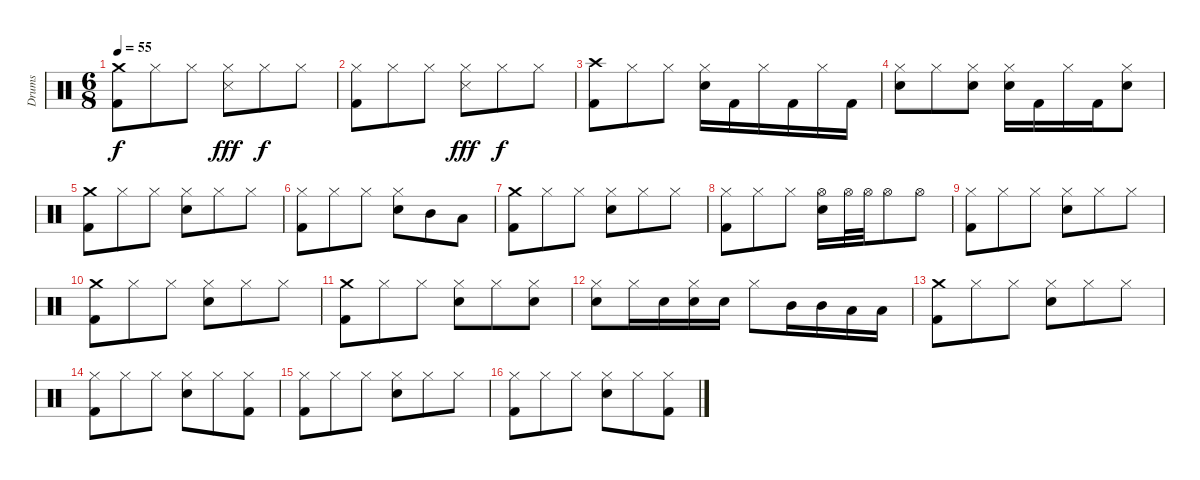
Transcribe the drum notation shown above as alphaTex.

\track ("Drums" "Drums") {instrument percussion}
\staff {score}
\articulation defaults
\ts (6 8)
\tempo 55
\clef neutral
\ks c
("Crash medium (hit)" "Kick (hit) 2").8{dy f} "Hi-Hat (closed)".8 "Hi-Hat (closed)".8 ("Hi-Hat (closed)" "Snare (side stick) 3").8{dy fff} "Hi-Hat (closed)".8{dy f} "Hi-Hat (closed)".8 |
("Hi-Hat (closed)" "Kick (hit) 2").8 "Hi-Hat (closed)".8 "Hi-Hat (closed)".8 ("Hi-Hat (closed)" "Snare (side stick) 3").8{dy fff} "Hi-Hat (closed)".8{dy f} "Hi-Hat (closed)".8 |
("Crash high (hit)" "Kick (hit) 2").8 "Hi-Hat (closed)".8 "Hi-Hat (closed)".8 ("Hi-Hat (closed)" "Snare (hit) 2").16 "Kick (hit) 2".16 "Hi-Hat (closed)".16 "Kick (hit) 2".16 "Hi-Hat (closed)".16 "Kick (hit) 2".16 |
("Hi-Hat (closed)" "Snare (hit) 2").8 "Hi-Hat (closed)".8 ("Hi-Hat (closed)" "Snare (hit) 2").8 ("Hi-Hat (closed)" "Snare (hit) 2").16 "Kick (hit) 2".16 "Hi-Hat (closed)".16 "Kick (hit) 2".16 ("Hi-Hat (closed)" "Snare (hit) 2").8 |
("Crash medium (hit)" "Kick (hit) 2").8 "Hi-Hat (closed)".8 "Hi-Hat (closed)".8 ("Hi-Hat (closed)" "Snare (hit) 2").8 "Hi-Hat (closed)".8 "Hi-Hat (closed)".8 |
("Hi-Hat (closed)" "Kick (hit) 2").8 "Hi-Hat (closed)".8 "Hi-Hat (closed)".8 ("Hi-Hat (closed)" "Snare (hit) 2").8 "Mid Tom (hit)".8 "Low Tom (hit)".8 |
("Crash medium (hit)" "Kick (hit) 2").8 "Hi-Hat (closed)".8 "Hi-Hat (closed)".8 ("Hi-Hat (closed)" "Snare (hit) 2").8 "Hi-Hat (closed)".8 "Hi-Hat (closed)".8 |
("Hi-Hat (closed)" "Kick (hit) 2").8 "Hi-Hat (closed)".8 "Hi-Hat (closed)".8 ("Hi-Hat (open)" "Snare (hit) 2").16 "Hi-Hat (open)".32 "Hi-Hat (open)".32 "Hi-Hat (open)".8 "Hi-Hat (open)".8 |
("Hi-Hat (closed)" "Kick (hit) 2").8 "Hi-Hat (closed)".8 "Hi-Hat (closed)".8 ("Hi-Hat (closed)" "Snare (hit) 2").8 "Hi-Hat (closed)".8 "Hi-Hat (closed)".8 |
("Crash medium (hit)" "Kick (hit) 2").8 "Hi-Hat (closed)".8 "Hi-Hat (closed)".8 ("Hi-Hat (closed)" "Snare (hit) 2").8 "Hi-Hat (closed)".8 "Hi-Hat (closed)".8 |
("Crash medium (hit)" "Kick (hit) 2").8 "Hi-Hat (closed)".8 "Hi-Hat (closed)".8 ("Hi-Hat (closed)" "Snare (hit) 2").8 "Hi-Hat (closed)".8 ("Hi-Hat (closed)" "Snare (hit) 2").8 |
("Hi-Hat (closed)" "Snare (hit) 2").8 "Hi-Hat (closed)".16 "Snare (hit) 2".16 ("Hi-Hat (closed)" "Snare (hit) 2").16 "Snare (hit) 2".16 "Hi-Hat (closed)".8 "Mid Tom (hit)".16 "Mid Tom (hit)".16 "Low Tom (hit)".16 "Low Tom (hit)".16 |
("Crash medium (hit)" "Kick (hit) 2").8 "Hi-Hat (closed)".8 "Hi-Hat (closed)".8 ("Hi-Hat (closed)" "Snare (hit) 2").8 "Hi-Hat (closed)".8 "Hi-Hat (closed)".8 |
("Hi-Hat (closed)" "Kick (hit) 2").8 "Hi-Hat (closed)".8 "Hi-Hat (closed)".8 ("Hi-Hat (closed)" "Snare (hit) 2").8 "Hi-Hat (closed)".8 ("Hi-Hat (closed)" "Kick (hit) 2").8 |
("Hi-Hat (closed)" "Kick (hit) 2").8 "Hi-Hat (closed)".8 "Hi-Hat (closed)".8 ("Hi-Hat (closed)" "Snare (hit) 2").8 "Hi-Hat (closed)".8 "Hi-Hat (closed)".8 |
("Hi-Hat (closed)" "Kick (hit) 2").8 "Hi-Hat (closed)".8 "Hi-Hat (closed)".8 ("Hi-Hat (closed)" "Snare (hit) 2").8 "Hi-Hat (closed)".8 ("Hi-Hat (closed)" "Kick (hit) 2").8
